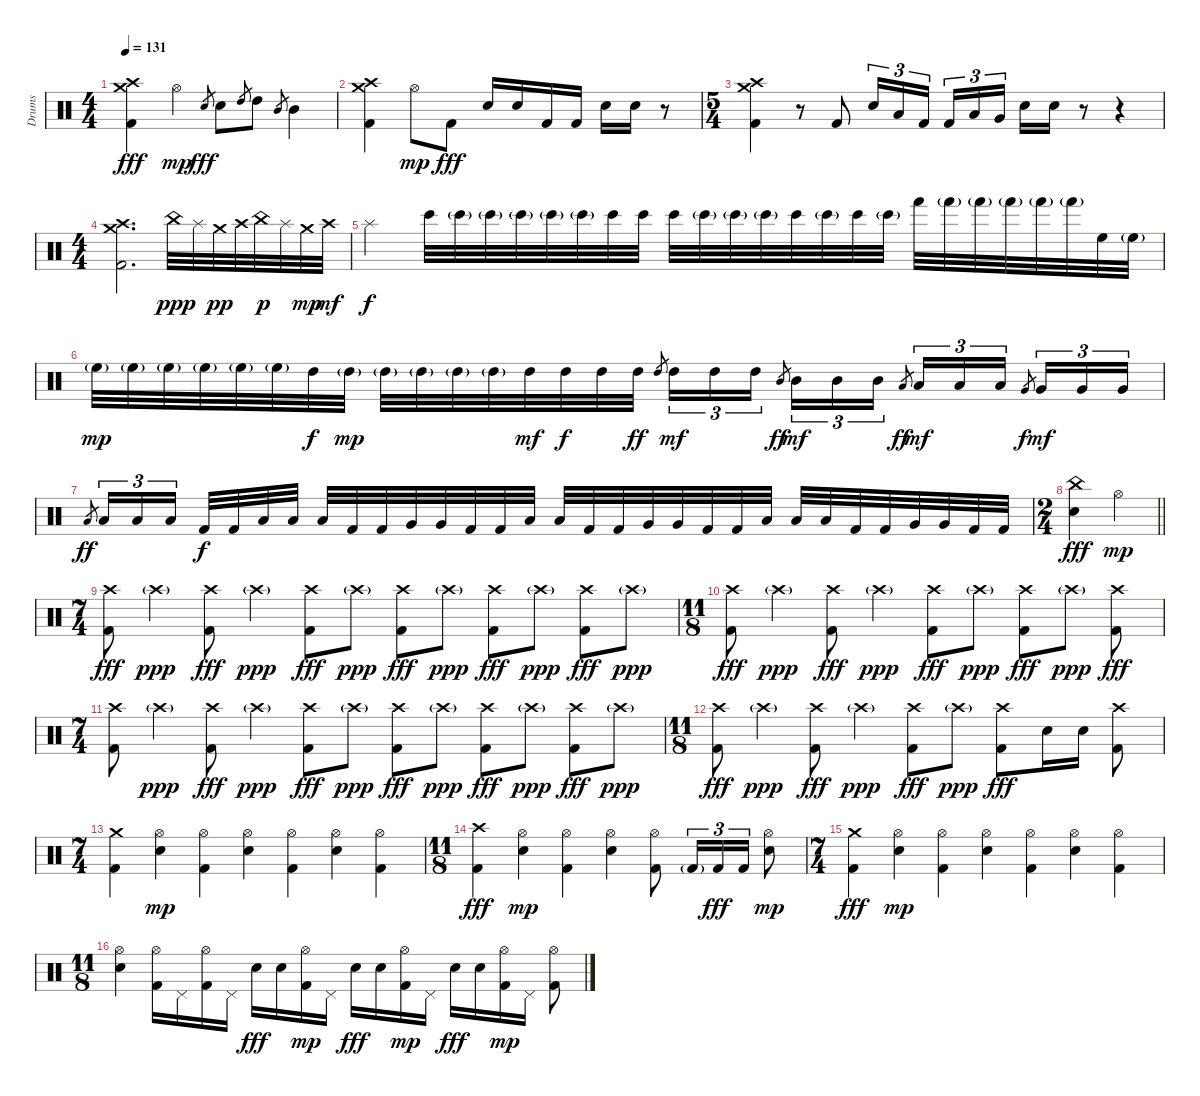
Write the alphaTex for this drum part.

\track ("Drums" "Drums") {instrument percussion}
\staff {score}
\articulation defaults
\ts (4 4)
\tempo 131
\clef neutral
\ks c
("Kick (hit) 2" "Crash medium (hit)" "Crash high (hit)").4{dy fff} "Hi-Hat (open)".4{dy mp} "Electric Snare (hit)".8{gr dy fff} "Electric Snare (hit)".8 "High Tom (hit)".8{gr} "High Tom (hit)".8 "Mid Tom (hit)".8{gr} "Mid Tom (hit)".4 |
("Kick (hit) 2" "Crash medium (hit)" "Crash high (hit)").4 "Hi-Hat (open)".8{dy mp} "Kick (hit) 2".8{dy fff} "Electric Snare (hit)".16 "Electric Snare (hit)".16 "Kick (hit) 2".16 "Kick (hit) 2".16 "Electric Snare (hit)".16 "Electric Snare (hit)".16 r.8 |
\ts (5 4)
("Kick (hit) 2" "Crash medium (hit)" "Crash high (hit)").4 r.8 "Kick (hit) 2".8 "Electric Snare (hit)".16{tu (3 2)} "Low Tom (hit)".16{tu (3 2)} "Kick (hit) 2".16{tu (3 2) beam splitsecondary} "Kick (hit) 2".16{tu (3 2)} "Low Tom (hit)".16{tu (3 2)} "Very Low Tom (hit)".16{tu (3 2)} "Electric Snare (hit)".16 "Electric Snare (hit)".16 r.8 r.4 |
\ts (4 4)
("Kick (hit) 2" "Crash medium (hit)" "Crash high (hit)").2{d} "China (hit)".32{dy ppp} "Splash (hit)".32 "Crash medium (hit)".32{dy pp} "Crash high (hit)".32 "China (hit)".32{dy p} "Splash (hit)".32 "Crash medium (hit)".32{dy mp} "Crash high (hit)".32{dy mf} |
"Splash (hit)".4{dy f} "Bongo High (hit)".32 "Bongo High (hit)"{g}.32 "Bongo High (hit)"{g}.32 "Bongo High (hit)"{g}.32 "Bongo High (hit)"{g}.32 "Bongo High (hit)"{g}.32 "Bongo High (hit)".32 "Bongo High (hit)".32 "Bongo High (hit)".32 "Bongo High (hit)"{g}.32 "Bongo High (hit)"{g}.32 "Bongo High (hit)"{g}.32 "Bongo High (hit)".32 "Bongo High (hit)"{g}.32 "Bongo High (hit)".32 "Bongo High (hit)"{g}.32 "Hand (hit)".32 "Hand (hit)"{g}.32 "Hand (hit)"{g}.32 "Hand (hit)"{g}.32 "Hand (hit)"{g}.32 "Hand (hit)"{g}.32 "High Floor Tom (hit)".32 "High Floor Tom (hit)"{g}.32 |
"High Floor Tom (hit)"{g}.32{dy mp} "High Floor Tom (hit)"{g}.32 "High Floor Tom (hit)"{g}.32 "High Floor Tom (hit)"{g}.32 "High Floor Tom (hit)"{g}.32 "High Floor Tom (hit)"{g}.32 "High Tom (hit)".32{dy f} "High Tom (hit)"{g}.32{dy mp} "High Tom (hit)"{g}.32 "High Tom (hit)"{g}.32 "High Tom (hit)"{g}.32 "High Tom (hit)"{g}.32 "High Tom (hit)".32{dy mf} "High Tom (hit)".32{dy f} "High Tom (hit)".32 "High Tom (hit)".32{dy ff} "High Tom (hit)".8{gr} "High Tom (hit)".16{tu (3 2) dy mf} "High Tom (hit)".16{tu (3 2)} "High Tom (hit)".16{tu (3 2)} "Mid Tom (hit)".8{gr dy ff beam splitsecondary} "Mid Tom (hit)".16{tu (3 2) dy mf} "Mid Tom (hit)".16{tu (3 2)} "Mid Tom (hit)".16{tu (3 2)} "Low Tom (hit)".8{gr dy ff} "Low Tom (hit)".16{tu (3 2) dy mf} "Low Tom (hit)".16{tu (3 2)} "Low Tom (hit)".16{tu (3 2)} "Very Low Tom (hit)".8{gr dy f beam splitsecondary} "Very Low Tom (hit)".16{tu (3 2) dy mf} "Very Low Tom (hit)".16{tu (3 2)} "Very Low Tom (hit)".16{tu (3 2)} |
"Low Floor Tom (hit)".8{gr dy ff} "Low Floor Tom (hit)".16{tu (3 2)} "Low Floor Tom (hit)".16{tu (3 2)} "Low Floor Tom (hit)".16{tu (3 2) beam splitsecondary} "Kick (hit) 2".32{dy f} "Kick (hit) 2".32 "Low Floor Tom (hit)".32 "Low Floor Tom (hit)".32 "Low Floor Tom (hit)".32 "Kick (hit) 2".32 "Kick (hit) 2".32 "Very Low Tom (hit)".32 "Very Low Tom (hit)".32 "Kick (hit) 2".32 "Kick (hit) 2".32 "Low Floor Tom (hit)".32 "Low Floor Tom (hit)".32 "Kick (hit) 2".32 "Kick (hit) 2".32 "Very Low Tom (hit)".32 "Very Low Tom (hit)".32 "Kick (hit) 2".32 "Kick (hit) 2".32 "Low Floor Tom (hit)".32 "Low Floor Tom (hit)".32 "Low Floor Tom (hit)".32 "Kick (hit) 2".32 "Kick (hit) 2".32 "Very Low Tom (hit)".32 "Very Low Tom (hit)".32 "Kick (hit) 2".32 "Kick (hit) 2".32 |
\ts (2 4)
\barLineRight lightlight
("Electric Snare (hit)" "China (hit)").4{dy fff} "Hi-Hat (open)".4{dy mp} |
\ts (7 4)
("Kick (hit) 2" "Crash high (hit)").8{dy fff} "Crash high (hit)"{g}.4{dy ppp} ("Kick (hit) 2" "Crash high (hit)").8{dy fff} "Crash high (hit)"{g}.4{dy ppp} ("Kick (hit) 2" "Crash high (hit)").8{dy fff} "Crash high (hit)"{g}.8{dy ppp} ("Kick (hit) 2" "Crash high (hit)").8{dy fff} "Crash high (hit)"{g}.8{dy ppp} ("Kick (hit) 2" "Crash high (hit)").8{dy fff} "Crash high (hit)"{g}.8{dy ppp} ("Kick (hit) 2" "Crash high (hit)").8{dy fff} "Crash high (hit)"{g}.8{dy ppp} |
\ts (11 8)
("Kick (hit) 2" "Crash high (hit)").8{dy fff} "Crash high (hit)"{g}.4{dy ppp} ("Kick (hit) 2" "Crash high (hit)").8{dy fff} "Crash high (hit)"{g}.4{dy ppp} ("Kick (hit) 2" "Crash high (hit)").8{dy fff} "Crash high (hit)"{g}.8{dy ppp} ("Kick (hit) 2" "Crash high (hit)").8{dy fff} "Crash high (hit)"{g}.8{dy ppp} ("Kick (hit) 2" "Crash high (hit)").8{dy fff} |
\ts (7 4)
("Kick (hit) 2" "Crash high (hit)").8 "Crash high (hit)"{g}.4{dy ppp} ("Kick (hit) 2" "Crash high (hit)").8{dy fff} "Crash high (hit)"{g}.4{dy ppp} ("Kick (hit) 2" "Crash high (hit)").8{dy fff} "Crash high (hit)"{g}.8{dy ppp} ("Kick (hit) 2" "Crash high (hit)").8{dy fff} "Crash high (hit)"{g}.8{dy ppp} ("Kick (hit) 2" "Crash high (hit)").8{dy fff} "Crash high (hit)"{g}.8{dy ppp} ("Kick (hit) 2" "Crash high (hit)").8{dy fff} "Crash high (hit)"{g}.8{dy ppp} |
\ts (11 8)
("Kick (hit) 2" "Crash high (hit)").8{dy fff} "Crash high (hit)"{g}.4{dy ppp} ("Kick (hit) 2" "Crash high (hit)").8{dy fff} "Crash high (hit)"{g}.4{dy ppp} ("Kick (hit) 2" "Crash high (hit)").8{dy fff} "Crash high (hit)"{g}.8{dy ppp} ("Kick (hit) 2" "Crash high (hit)").8{dy fff} "Electric Snare (hit)".16 "Electric Snare (hit)".16 ("Kick (hit) 2" "Crash high (hit)").8 |
\ts (7 4)
("Kick (hit) 2" "Crash medium (hit)").4 ("Electric Snare (hit)" "Hi-Hat (open)").4{dy mp} ("Kick (hit) 2" "Hi-Hat (open)").4 ("Electric Snare (hit)" "Hi-Hat (open)").4 ("Kick (hit) 2" "Hi-Hat (open)").4 ("Electric Snare (hit)" "Hi-Hat (open)").4 ("Kick (hit) 2" "Hi-Hat (open)").4 |
\ts (11 8)
("Kick (hit) 2" "Crash high (hit)").4{dy fff} ("Electric Snare (hit)" "Hi-Hat (open)").4{dy mp} ("Kick (hit) 2" "Hi-Hat (open)").4 ("Electric Snare (hit)" "Hi-Hat (open)").4 ("Kick (hit) 2" "Hi-Hat (open)").8 "Kick (hit) 2"{g}.16{tu (3 2)} "Kick (hit) 2".16{tu (3 2) dy fff} "Kick (hit) 2".16{tu (3 2)} ("Electric Snare (hit)" "Hi-Hat (open)").8{dy mp} |
\ts (7 4)
("Kick (hit) 2" "Crash medium (hit)").4{dy fff} ("Electric Snare (hit)" "Hi-Hat (open)").4{dy mp} ("Kick (hit) 2" "Hi-Hat (open)").4 ("Electric Snare (hit)" "Hi-Hat (open)").4 ("Kick (hit) 2" "Hi-Hat (open)").4 ("Electric Snare (hit)" "Hi-Hat (open)").4 ("Kick (hit) 2" "Hi-Hat (open)").4 |
\ts (11 8)
("Electric Snare (hit)" "Hi-Hat (open)").4 ("Kick (hit) 2" "Hi-Hat (open)").16 "Pedal Hi-Hat (hit)".16 ("Kick (hit) 2" "Hi-Hat (open)").16 "Pedal Hi-Hat (hit)".16 "Electric Snare (hit)".16{dy fff} "Electric Snare (hit)".16 ("Kick (hit) 2" "Hi-Hat (open)").16{dy mp} "Pedal Hi-Hat (hit)".16 "Electric Snare (hit)".16{dy fff} "Electric Snare (hit)".16 ("Kick (hit) 2" "Hi-Hat (open)").16{dy mp} "Pedal Hi-Hat (hit)".16 "Electric Snare (hit)".16{dy fff} "Electric Snare (hit)".16 ("Kick (hit) 2" "Hi-Hat (open)").16{dy mp} "Pedal Hi-Hat (hit)".16 ("Kick (hit) 2" "Hi-Hat (open)").8
